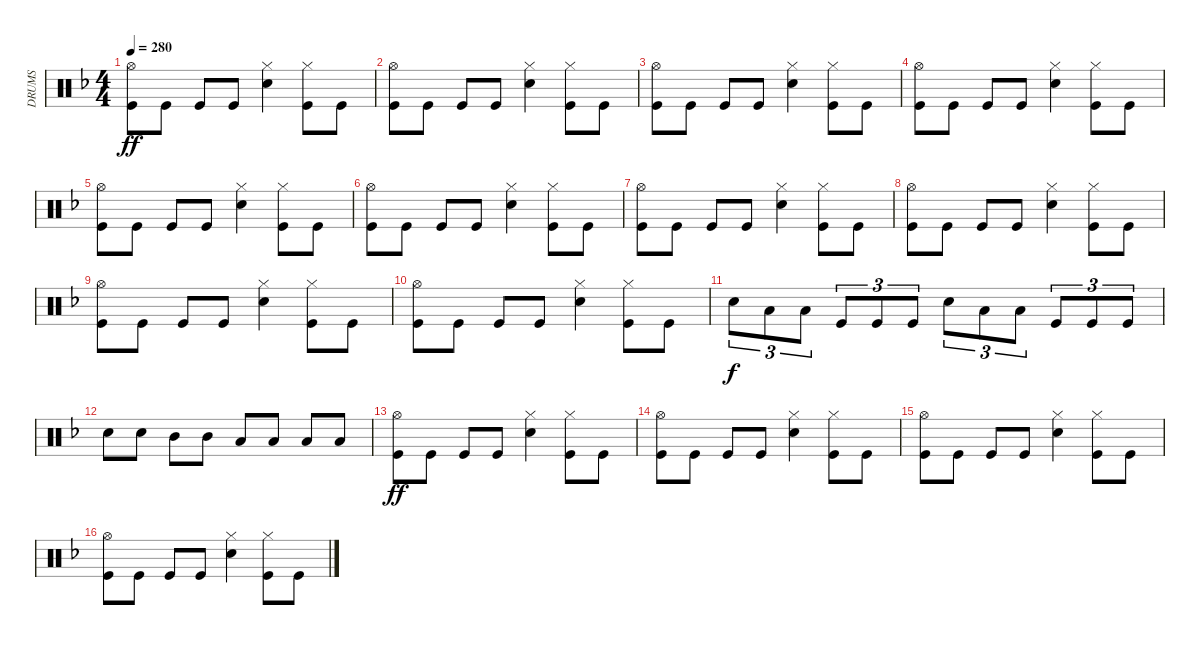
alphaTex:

\track ("DRUMS" "DRUMS") {instrument percussion}
\staff {score}
\articulation defaults
\ts (4 4)
\tempo 280
\clef neutral
\ks dminor
("Hi-Hat (open)" "Kick (hit)").8{dy ff} "Kick (hit)".8 "Kick (hit)".8 "Kick (hit)".8 ("Hi-Hat (closed)" "Snare (hit) 2").4 ("Hi-Hat (closed)" "Kick (hit)").8 "Kick (hit)".8 |
("Hi-Hat (open)" "Kick (hit)").8 "Kick (hit)".8 "Kick (hit)".8 "Kick (hit)".8 ("Hi-Hat (closed)" "Snare (hit) 2").4 ("Hi-Hat (closed)" "Kick (hit)").8 "Kick (hit)".8 |
("Hi-Hat (open)" "Kick (hit)").8 "Kick (hit)".8 "Kick (hit)".8 "Kick (hit)".8 ("Hi-Hat (closed)" "Snare (hit) 2").4 ("Hi-Hat (closed)" "Kick (hit)").8 "Kick (hit)".8 |
("Hi-Hat (open)" "Kick (hit)").8 "Kick (hit)".8 "Kick (hit)".8 "Kick (hit)".8 ("Hi-Hat (closed)" "Snare (hit) 2").4 ("Hi-Hat (closed)" "Kick (hit)").8 "Kick (hit)".8 |
("Hi-Hat (open)" "Kick (hit)").8 "Kick (hit)".8 "Kick (hit)".8 "Kick (hit)".8 ("Hi-Hat (closed)" "Snare (hit) 2").4 ("Hi-Hat (closed)" "Kick (hit)").8 "Kick (hit)".8 |
("Hi-Hat (open)" "Kick (hit)").8 "Kick (hit)".8 "Kick (hit)".8 "Kick (hit)".8 ("Hi-Hat (closed)" "Snare (hit) 2").4 ("Hi-Hat (closed)" "Kick (hit)").8 "Kick (hit)".8 |
("Hi-Hat (open)" "Kick (hit)").8 "Kick (hit)".8 "Kick (hit)".8 "Kick (hit)".8 ("Hi-Hat (closed)" "Snare (hit) 2").4 ("Hi-Hat (closed)" "Kick (hit)").8 "Kick (hit)".8 |
("Hi-Hat (open)" "Kick (hit)").8 "Kick (hit)".8 "Kick (hit)".8 "Kick (hit)".8 ("Hi-Hat (closed)" "Snare (hit) 2").4 ("Hi-Hat (closed)" "Kick (hit)").8 "Kick (hit)".8 |
("Hi-Hat (open)" "Kick (hit)").8 "Kick (hit)".8 "Kick (hit)".8 "Kick (hit)".8 ("Hi-Hat (closed)" "Snare (hit) 2").4 ("Hi-Hat (closed)" "Kick (hit)").8 "Kick (hit)".8 |
("Hi-Hat (open)" "Kick (hit)").8 "Kick (hit)".8 "Kick (hit)".8 "Kick (hit)".8 ("Hi-Hat (closed)" "Snare (hit) 2").4 ("Hi-Hat (closed)" "Kick (hit)").8 "Kick (hit)".8 |
"Snare (hit) 2".8{tu (3 2) dy f} "Low Tom (hit)".8{tu (3 2)} "Low Tom (hit)".8{tu (3 2)} "Kick (hit)".8{tu (3 2)} "Kick (hit)".8{tu (3 2)} "Kick (hit)".8{tu (3 2)} "Snare (hit) 2".8{tu (3 2)} "Low Tom (hit)".8{tu (3 2)} "Low Tom (hit)".8{tu (3 2)} "Kick (hit)".8{tu (3 2)} "Kick (hit)".8{tu (3 2)} "Kick (hit)".8{tu (3 2)} |
"Snare (hit) 2".8 "Snare (hit) 2".8 "Mid Tom (hit)".8 "Mid Tom (hit)".8 "Low Tom (hit)".8 "Low Tom (hit)".8 "Low Tom (hit)".8 "Low Tom (hit)".8 |
("Hi-Hat (open)" "Kick (hit)").8{dy ff} "Kick (hit)".8 "Kick (hit)".8 "Kick (hit)".8 ("Hi-Hat (closed)" "Snare (hit) 2").4 ("Hi-Hat (closed)" "Kick (hit)").8 "Kick (hit)".8 |
("Hi-Hat (open)" "Kick (hit)").8 "Kick (hit)".8 "Kick (hit)".8 "Kick (hit)".8 ("Hi-Hat (closed)" "Snare (hit) 2").4 ("Hi-Hat (closed)" "Kick (hit)").8 "Kick (hit)".8 |
("Hi-Hat (open)" "Kick (hit)").8 "Kick (hit)".8 "Kick (hit)".8 "Kick (hit)".8 ("Hi-Hat (closed)" "Snare (hit) 2").4 ("Hi-Hat (closed)" "Kick (hit)").8 "Kick (hit)".8 |
("Hi-Hat (open)" "Kick (hit)").8 "Kick (hit)".8 "Kick (hit)".8 "Kick (hit)".8 ("Hi-Hat (closed)" "Snare (hit) 2").4 ("Hi-Hat (closed)" "Kick (hit)").8 "Kick (hit)".8
